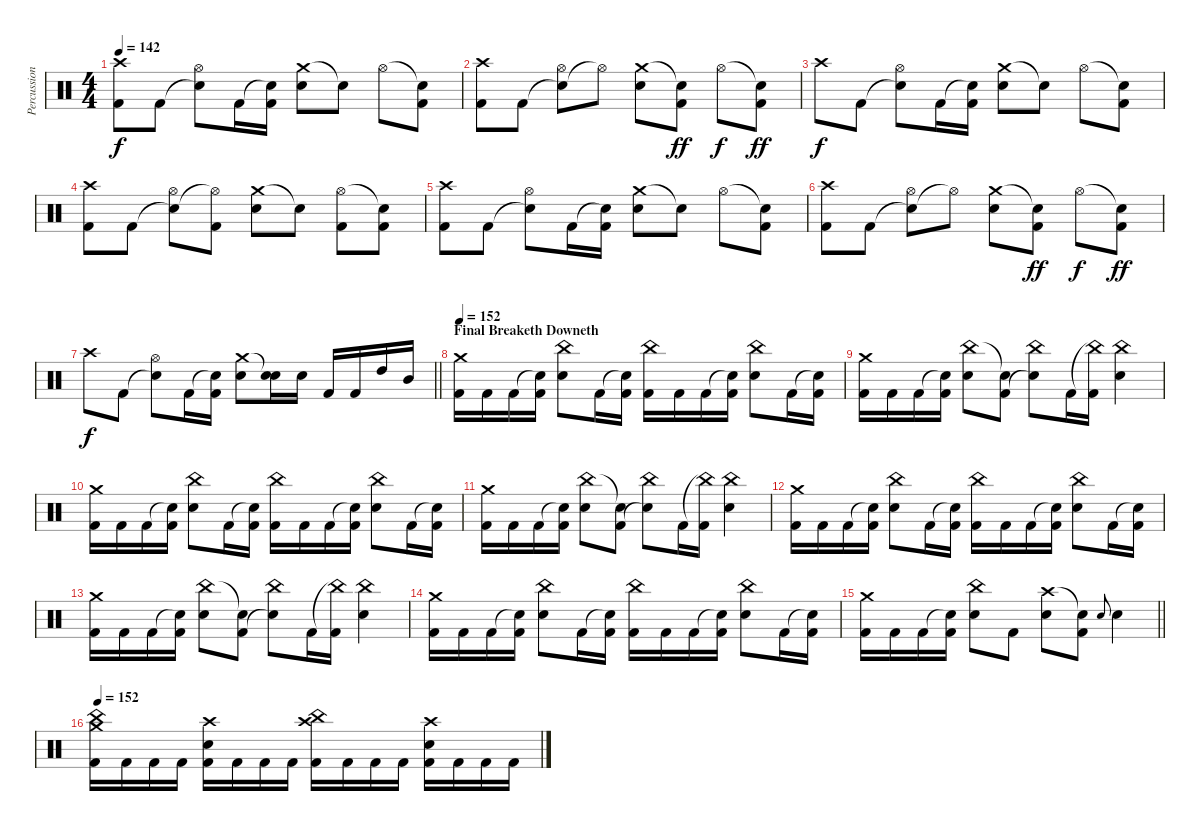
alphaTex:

\track ("Percussion" "Percussion") {instrument percussion}
\staff {score}
\articulation defaults
\ts (4 4)
\tempo 142
\clef neutral
\ks c
("Crash high (hit)" "Kick (hit) 2").8{dy f} "Kick (hit) 2".8 ("Snare (hit)"{t} "Hi-Hat (open)").8 "Kick (hit) 2".16 ("Snare (hit)"{t} "Kick (hit) 2").16 ("Crash medium (hit)" "Electric Snare (hit)").8 "Snare (hit)"{t}.8 "Hi-Hat (open)".8 ("Snare (hit)"{t} "Kick (hit) 2").8 |
("Crash high (hit)" "Kick (hit) 2").8 "Kick (hit) 2".8 ("Snare (hit)"{t} "Hi-Hat (open)").8 "Hi-Hat (open)"{t}.8 ("Crash medium (hit)" "Electric Snare (hit)").8 ("Snare (hit)"{t} "Kick (hit) 2").8{dy ff} "Hi-Hat (open)".8{dy f} ("Snare (hit)"{t} "Kick (hit) 2").8{dy ff} |
"Crash high (hit)".8{dy f} "Kick (hit) 2".8 ("Snare (hit)"{t} "Hi-Hat (open)").8 "Kick (hit) 2".16 ("Snare (hit)"{t} "Kick (hit) 2").16 ("Crash medium (hit)" "Electric Snare (hit)").8 "Snare (hit)"{t}.8 "Hi-Hat (open)".8 ("Snare (hit)"{t} "Kick (hit) 2").8 |
("Crash high (hit)" "Kick (hit) 2").8 "Kick (hit) 2".8 ("Snare (hit)"{t} "Hi-Hat (open)").8 ("Hi-Hat (open)"{t} "Kick (hit) 2").8 ("Crash medium (hit)" "Electric Snare (hit)").8 "Snare (hit)"{t}.8 ("Hi-Hat (open)" "Kick (hit) 2").8 ("Snare (hit)"{t} "Kick (hit) 2").8 |
("Crash high (hit)" "Kick (hit) 2").8 "Kick (hit) 2".8 ("Snare (hit)"{t} "Hi-Hat (open)").8 "Kick (hit) 2".16 ("Snare (hit)"{t} "Kick (hit) 2").16 ("Crash medium (hit)" "Electric Snare (hit)").8 "Snare (hit)"{t}.8 "Hi-Hat (open)".8 ("Snare (hit)"{t} "Kick (hit) 2").8 |
("Crash high (hit)" "Kick (hit) 2").8 "Kick (hit) 2".8 ("Snare (hit)"{t} "Hi-Hat (open)").8 "Hi-Hat (open)"{t}.8 ("Crash medium (hit)" "Electric Snare (hit)").8 ("Snare (hit)"{t} "Kick (hit) 2").8{dy ff} "Hi-Hat (open)".8{dy f} ("Snare (hit)"{t} "Kick (hit) 2").8{dy ff} |
\barLineRight lightlight "Crash high (hit)".8{dy f} "Kick (hit) 2".8
("Snare (hit)"{t} "Hi-Hat (open)").8 "Kick (hit) 2".16 ("Snare (hit)"{t} "Kick (hit) 2").16 ("Crash medium (hit)" "Electric Snare (hit)").8 ("Snare (hit)"{t} "Electric Snare (hit)").16 "Electric Snare (hit)".16 "Kick (hit) 2".16 "Kick (hit) 2".16 "High Tom (hit)".16 "Mid Tom (hit)".16 |
\section ("" "Final Breaketh Downeth")
\tempo 152
("Crash medium (hit)" "Kick (hit) 2").16 "Kick (hit) 2".16 "Kick (hit) 2".16 ("Snare (hit)"{t} "Kick (hit) 2").16 ("China (hit)" "Electric Snare (hit)").8 "Kick (hit) 2".16 ("Snare (hit)"{t} "Kick (hit) 2").16 ("China (hit)" "Kick (hit) 2").16 "Kick (hit) 2".16 "Kick (hit) 2".16 ("Snare (hit)"{t} "Kick (hit) 2").16 ("China (hit)" "Electric Snare (hit)").8 "Kick (hit) 2".16 ("Snare (hit)"{t} "Kick (hit) 2").16 |
("Crash medium (hit)" "Kick (hit) 2").16 "Kick (hit) 2".16 "Kick (hit) 2".16 ("Snare (hit)"{t} "Kick (hit) 2").16 ("China (hit)" "Electric Snare (hit)").8 ("Snare (hit)"{t} "Kick (hit) 2").8 ("China (hit)" "Snare (hit)"{t}).8 "Kick (hit) 2".16 ("China (hit)"{t} "Kick (hit) 2").16 ("China (hit)" "Electric Snare (hit)").4 |
("Crash medium (hit)" "Kick (hit) 2").16 "Kick (hit) 2".16 "Kick (hit) 2".16 ("Snare (hit)"{t} "Kick (hit) 2").16 ("China (hit)" "Electric Snare (hit)").8 "Kick (hit) 2".16 ("Snare (hit)"{t} "Kick (hit) 2").16 ("China (hit)" "Kick (hit) 2").16 "Kick (hit) 2".16 "Kick (hit) 2".16 ("Snare (hit)"{t} "Kick (hit) 2").16 ("China (hit)" "Electric Snare (hit)").8 "Kick (hit) 2".16 ("Snare (hit)"{t} "Kick (hit) 2").16 |
("Crash medium (hit)" "Kick (hit) 2").16 "Kick (hit) 2".16 "Kick (hit) 2".16 ("Snare (hit)"{t} "Kick (hit) 2").16 ("China (hit)" "Electric Snare (hit)").8 ("Snare (hit)"{t} "Kick (hit) 2").8 ("China (hit)" "Snare (hit)"{t}).8 "Kick (hit) 2".16 ("China (hit)"{t} "Kick (hit) 2").16 ("China (hit)" "Electric Snare (hit)").4 |
("Crash medium (hit)" "Kick (hit) 2").16 "Kick (hit) 2".16 "Kick (hit) 2".16 ("Snare (hit)"{t} "Kick (hit) 2").16 ("China (hit)" "Electric Snare (hit)").8 "Kick (hit) 2".16 ("Snare (hit)"{t} "Kick (hit) 2").16 ("China (hit)" "Kick (hit) 2").16 "Kick (hit) 2".16 "Kick (hit) 2".16 ("Snare (hit)"{t} "Kick (hit) 2").16 ("China (hit)" "Electric Snare (hit)").8 "Kick (hit) 2".16 ("Snare (hit)"{t} "Kick (hit) 2").16 |
("Crash medium (hit)" "Kick (hit) 2").16 "Kick (hit) 2".16 "Kick (hit) 2".16 ("Snare (hit)"{t} "Kick (hit) 2").16 ("China (hit)" "Electric Snare (hit)").8 ("Snare (hit)"{t} "Kick (hit) 2").8 ("China (hit)" "Snare (hit)"{t}).8 "Kick (hit) 2".16 ("China (hit)"{t} "Kick (hit) 2").16 ("China (hit)" "Electric Snare (hit)").4 |
("Crash medium (hit)" "Kick (hit) 2").16 "Kick (hit) 2".16 "Kick (hit) 2".16 ("Snare (hit)"{t} "Kick (hit) 2").16 ("China (hit)" "Electric Snare (hit)").8 "Kick (hit) 2".16 ("Snare (hit)"{t} "Kick (hit) 2").16 ("China (hit)" "Kick (hit) 2").16 "Kick (hit) 2".16 "Kick (hit) 2".16 ("Snare (hit)"{t} "Kick (hit) 2").16 ("China (hit)" "Electric Snare (hit)").8 "Kick (hit) 2".16 ("Snare (hit)"{t} "Kick (hit) 2").16 |
\barLineRight lightlight
("Crash medium (hit)" "Kick (hit) 2").16 "Kick (hit) 2".16 "Kick (hit) 2".16 ("Snare (hit)"{t} "Kick (hit) 2").16 ("China (hit)" "Electric Snare (hit)").8 "Kick (hit) 2".8 ("Crash high (hit)" "Electric Snare (hit)").8 ("Snare (hit)"{t} "Kick (hit) 2").8 "Electric Snare (hit)".8{gr onbeat} "Electric Snare (hit)".4 |
\tempo 152
("Crash medium (hit)" "China (hit)" "Kick (hit) 2").16 "Kick (hit) 2".16 "Kick (hit) 2".16 "Kick (hit) 2".16 ("Crash high (hit)" "Electric Snare (hit)" "Kick (hit) 2").16 "Kick (hit) 2".16 "Kick (hit) 2".16 "Kick (hit) 2".16 ("Crash high (hit)" "China (hit)" "Kick (hit) 2").16 "Kick (hit) 2".16 "Kick (hit) 2".16 "Kick (hit) 2".16 ("Crash high (hit)" "Electric Snare (hit)" "Kick (hit) 2").16 "Kick (hit) 2".16 "Kick (hit) 2".16 "Kick (hit) 2".16
